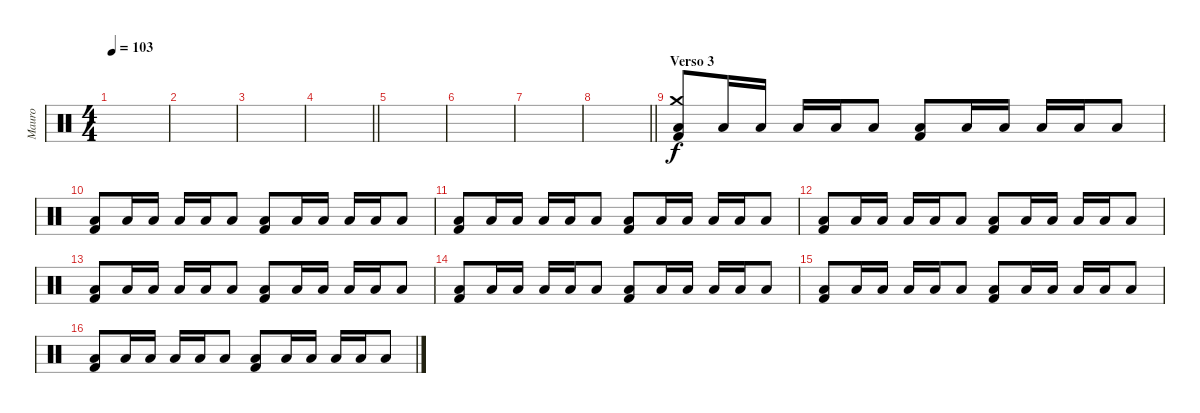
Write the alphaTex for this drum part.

\track ("Mauro" "Mauro") {instrument percussion}
\staff {score}
\articulation defaults
\ts (4 4)
\tempo 103
\clef neutral
\ks c
|
|
|
\barLineRight lightlight
|
\section ("" "")
|
|
|
\barLineRight lightlight
|
\section ("" "Verso 3")
("Low Floor Tom (hit)" "Crash medium (hit)" "Kick (hit) 2").8 "Low Floor Tom (hit)".16 "Low Floor Tom (hit)".16 "Low Floor Tom (hit)".16 "Low Floor Tom (hit)".16 "Low Floor Tom (hit)".8 ("Low Floor Tom (hit)" "Kick (hit) 2").8 "Low Floor Tom (hit)".16 "Low Floor Tom (hit)".16 "Low Floor Tom (hit)".16 "Low Floor Tom (hit)".16 "Low Floor Tom (hit)".8 |
("Low Floor Tom (hit)" "Kick (hit) 2").8 "Low Floor Tom (hit)".16 "Low Floor Tom (hit)".16 "Low Floor Tom (hit)".16 "Low Floor Tom (hit)".16 "Low Floor Tom (hit)".8 ("Low Floor Tom (hit)" "Kick (hit) 2").8 "Low Floor Tom (hit)".16 "Low Floor Tom (hit)".16 "Low Floor Tom (hit)".16 "Low Floor Tom (hit)".16 "Low Floor Tom (hit)".8 |
("Low Floor Tom (hit)" "Kick (hit) 2").8 "Low Floor Tom (hit)".16 "Low Floor Tom (hit)".16 "Low Floor Tom (hit)".16 "Low Floor Tom (hit)".16 "Low Floor Tom (hit)".8 ("Low Floor Tom (hit)" "Kick (hit) 2").8 "Low Floor Tom (hit)".16 "Low Floor Tom (hit)".16 "Low Floor Tom (hit)".16 "Low Floor Tom (hit)".16 "Low Floor Tom (hit)".8 |
("Low Floor Tom (hit)" "Kick (hit) 2").8 "Low Floor Tom (hit)".16 "Low Floor Tom (hit)".16 "Low Floor Tom (hit)".16 "Low Floor Tom (hit)".16 "Low Floor Tom (hit)".8 ("Low Floor Tom (hit)" "Kick (hit) 2").8 "Low Floor Tom (hit)".16 "Low Floor Tom (hit)".16 "Low Floor Tom (hit)".16 "Low Floor Tom (hit)".16 "Low Floor Tom (hit)".8 |
("Low Floor Tom (hit)" "Kick (hit) 2").8 "Low Floor Tom (hit)".16 "Low Floor Tom (hit)".16 "Low Floor Tom (hit)".16 "Low Floor Tom (hit)".16 "Low Floor Tom (hit)".8 ("Low Floor Tom (hit)" "Kick (hit) 2").8 "Low Floor Tom (hit)".16 "Low Floor Tom (hit)".16 "Low Floor Tom (hit)".16 "Low Floor Tom (hit)".16 "Low Floor Tom (hit)".8 |
("Low Floor Tom (hit)" "Kick (hit) 2").8 "Low Floor Tom (hit)".16 "Low Floor Tom (hit)".16 "Low Floor Tom (hit)".16 "Low Floor Tom (hit)".16 "Low Floor Tom (hit)".8 ("Low Floor Tom (hit)" "Kick (hit) 2").8 "Low Floor Tom (hit)".16 "Low Floor Tom (hit)".16 "Low Floor Tom (hit)".16 "Low Floor Tom (hit)".16 "Low Floor Tom (hit)".8 |
("Low Floor Tom (hit)" "Kick (hit) 2").8 "Low Floor Tom (hit)".16 "Low Floor Tom (hit)".16 "Low Floor Tom (hit)".16 "Low Floor Tom (hit)".16 "Low Floor Tom (hit)".8 ("Low Floor Tom (hit)" "Kick (hit) 2").8 "Low Floor Tom (hit)".16 "Low Floor Tom (hit)".16 "Low Floor Tom (hit)".16 "Low Floor Tom (hit)".16 "Low Floor Tom (hit)".8 |
("Low Floor Tom (hit)" "Kick (hit) 2").8 "Low Floor Tom (hit)".16 "Low Floor Tom (hit)".16 "Low Floor Tom (hit)".16 "Low Floor Tom (hit)".16 "Low Floor Tom (hit)".8 ("Low Floor Tom (hit)" "Kick (hit) 2").8 "Low Floor Tom (hit)".16 "Low Floor Tom (hit)".16 "Low Floor Tom (hit)".16 "Low Floor Tom (hit)".16 "Low Floor Tom (hit)".8
